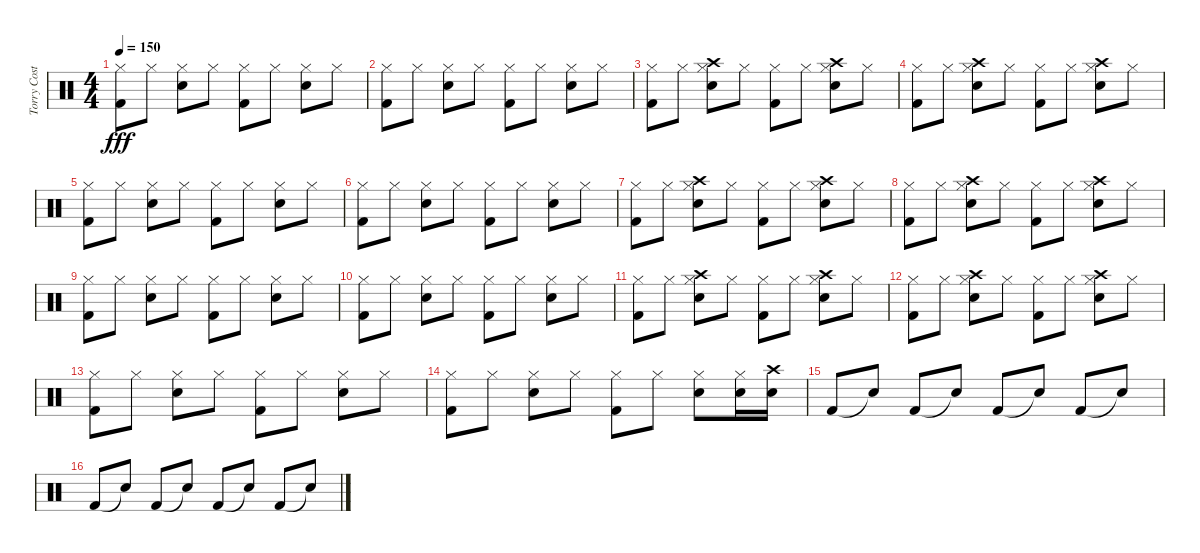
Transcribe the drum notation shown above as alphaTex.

\track ("Torry Costellano" "Torry Cost") {instrument percussion}
\staff {score}
\articulation defaults
\ts (4 4)
\tempo 150
\clef neutral
\ks c
("Hi-Hat (closed)" "Kick (hit) 2").8{dy fff} "Hi-Hat (closed)".8 ("Hi-Hat (closed)" "Electric Snare (hit)").8 "Hi-Hat (closed)".8 ("Hi-Hat (closed)" "Kick (hit) 2").8 "Hi-Hat (closed)".8 ("Hi-Hat (closed)" "Electric Snare (hit)").8 "Hi-Hat (closed)".8 |
("Hi-Hat (closed)" "Kick (hit) 2").8 "Hi-Hat (closed)".8 ("Hi-Hat (closed)" "Electric Snare (hit)").8 "Hi-Hat (closed)".8 ("Hi-Hat (closed)" "Kick (hit) 2").8 "Hi-Hat (closed)".8 ("Hi-Hat (closed)" "Electric Snare (hit)").8 "Hi-Hat (closed)".8 |
("Hi-Hat (closed)" "Kick (hit) 2").8 "Hi-Hat (closed)".8 ("Crash high (hit)" "Hi-Hat (closed)" "Electric Snare (hit)").8 "Hi-Hat (closed)".8 ("Hi-Hat (closed)" "Kick (hit) 2").8 "Hi-Hat (closed)".8 ("Crash high (hit)" "Hi-Hat (closed)" "Electric Snare (hit)").8 "Hi-Hat (closed)".8 |
("Hi-Hat (closed)" "Kick (hit) 2").8 "Hi-Hat (closed)".8 ("Crash high (hit)" "Hi-Hat (closed)" "Electric Snare (hit)").8 "Hi-Hat (closed)".8 ("Hi-Hat (closed)" "Kick (hit) 2").8 "Hi-Hat (closed)".8 ("Crash high (hit)" "Hi-Hat (closed)" "Electric Snare (hit)").8 "Hi-Hat (closed)".8 |
("Hi-Hat (closed)" "Kick (hit) 2").8 "Hi-Hat (closed)".8 ("Hi-Hat (closed)" "Electric Snare (hit)").8 "Hi-Hat (closed)".8 ("Hi-Hat (closed)" "Kick (hit) 2").8 "Hi-Hat (closed)".8 ("Hi-Hat (closed)" "Electric Snare (hit)").8 "Hi-Hat (closed)".8 |
("Hi-Hat (closed)" "Kick (hit) 2").8 "Hi-Hat (closed)".8 ("Hi-Hat (closed)" "Electric Snare (hit)").8 "Hi-Hat (closed)".8 ("Hi-Hat (closed)" "Kick (hit) 2").8 "Hi-Hat (closed)".8 ("Hi-Hat (closed)" "Electric Snare (hit)").8 "Hi-Hat (closed)".8 |
("Hi-Hat (closed)" "Kick (hit) 2").8 "Hi-Hat (closed)".8 ("Crash high (hit)" "Hi-Hat (closed)" "Electric Snare (hit)").8 "Hi-Hat (closed)".8 ("Hi-Hat (closed)" "Kick (hit) 2").8 "Hi-Hat (closed)".8 ("Crash high (hit)" "Hi-Hat (closed)" "Electric Snare (hit)").8 "Hi-Hat (closed)".8 |
("Hi-Hat (closed)" "Kick (hit) 2").8 "Hi-Hat (closed)".8 ("Crash high (hit)" "Hi-Hat (closed)" "Electric Snare (hit)").8 "Hi-Hat (closed)".8 ("Hi-Hat (closed)" "Kick (hit) 2").8 "Hi-Hat (closed)".8 ("Crash high (hit)" "Hi-Hat (closed)" "Electric Snare (hit)").8 "Hi-Hat (closed)".8 |
("Hi-Hat (closed)" "Kick (hit) 2").8 "Hi-Hat (closed)".8 ("Hi-Hat (closed)" "Electric Snare (hit)").8 "Hi-Hat (closed)".8 ("Hi-Hat (closed)" "Kick (hit) 2").8 "Hi-Hat (closed)".8 ("Hi-Hat (closed)" "Electric Snare (hit)").8 "Hi-Hat (closed)".8 |
("Hi-Hat (closed)" "Kick (hit) 2").8 "Hi-Hat (closed)".8 ("Hi-Hat (closed)" "Electric Snare (hit)").8 "Hi-Hat (closed)".8 ("Hi-Hat (closed)" "Kick (hit) 2").8 "Hi-Hat (closed)".8 ("Hi-Hat (closed)" "Electric Snare (hit)").8 "Hi-Hat (closed)".8 |
("Hi-Hat (closed)" "Kick (hit) 2").8 "Hi-Hat (closed)".8 ("Crash high (hit)" "Hi-Hat (closed)" "Electric Snare (hit)").8 "Hi-Hat (closed)".8 ("Hi-Hat (closed)" "Kick (hit) 2").8 "Hi-Hat (closed)".8 ("Crash high (hit)" "Hi-Hat (closed)" "Electric Snare (hit)").8 "Hi-Hat (closed)".8 |
("Hi-Hat (closed)" "Kick (hit) 2").8 "Hi-Hat (closed)".8 ("Crash high (hit)" "Hi-Hat (closed)" "Electric Snare (hit)").8 "Hi-Hat (closed)".8 ("Hi-Hat (closed)" "Kick (hit) 2").8 "Hi-Hat (closed)".8 ("Crash high (hit)" "Hi-Hat (closed)" "Electric Snare (hit)").8 "Hi-Hat (closed)".8 |
("Hi-Hat (closed)" "Kick (hit) 2").8 "Hi-Hat (closed)".8 ("Hi-Hat (closed)" "Electric Snare (hit)").8 "Hi-Hat (closed)".8 ("Hi-Hat (closed)" "Kick (hit) 2").8 "Hi-Hat (closed)".8 ("Hi-Hat (closed)" "Electric Snare (hit)").8 "Hi-Hat (closed)".8 |
("Hi-Hat (closed)" "Kick (hit) 2").8 "Hi-Hat (closed)".8 ("Hi-Hat (closed)" "Electric Snare (hit)").8 "Hi-Hat (closed)".8 ("Hi-Hat (closed)" "Kick (hit) 2").8 "Hi-Hat (closed)".8 ("Hi-Hat (closed)" "Electric Snare (hit)").8 ("Hi-Hat (closed)" "Electric Snare (hit)").16 ("Crash high (hit)" "Electric Snare (hit)").16 |
"Kick (hit) 2".8 "Snare (hit)"{t}.8 "Kick (hit) 2".8 "Snare (hit)"{t}.8 "Kick (hit) 2".8 "Snare (hit)"{t}.8 "Kick (hit) 2".8 "Snare (hit)"{t}.8 |
"Kick (hit) 2".8 "Snare (hit)"{t}.8 "Kick (hit) 2".8 "Snare (hit)"{t}.8 "Kick (hit) 2".8 "Snare (hit)"{t}.8 "Kick (hit) 2".8 "Snare (hit)"{t}.8
